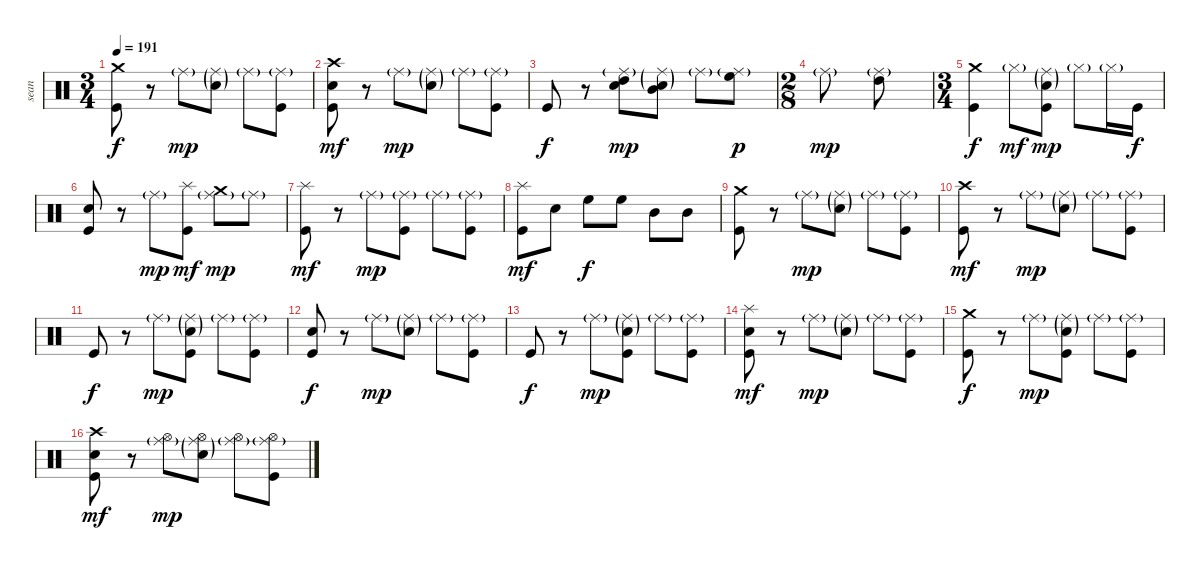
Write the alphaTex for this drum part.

\track ("sean" "sean") {instrument percussion}
\staff {score}
\articulation defaults
\ts (3 4)
\tempo 191
\clef neutral
\ks c
("Crash medium (hit)" "Kick (hit)").8{dy f} r.8 "Ride (middle)"{g}.8{dy mp} ("Electric Snare (hit)"{g} "Ride (middle)"{g}).8 "Ride (middle)"{g}.8 ("Kick (hit)" "Ride (middle)"{g}).8 |
("Crash high (hit)" "Electric Snare (hit)" "Kick (hit)").8{dy mf} r.8 "Ride (middle)"{g}.8{dy mp} ("Electric Snare (hit)"{g} "Ride (middle)"{g}).8 "Ride (middle)"{g}.8 ("Kick (hit)" "Ride (middle)"{g}).8 |
"Kick (hit)".8{dy f} r.8 ("Electric Snare (hit)" "High Tom (hit)" "Ride (middle)"{g}).8{dy mp} ("Electric Snare (hit)"{g} "Ride (middle)"{g} "Mid Tom (hit)").8 "Ride (middle)"{g}.8 ("High Floor Tom (hit)" "Ride (middle)"{g}).8{dy p} |
\ts (2 8)
"Ride (middle)"{g}.8{dy mp} ("High Tom (hit)" "Ride (middle)"{g}).8 |
\ts (3 4)
("Crash medium (hit)" "Kick (hit)").4{dy f} "Hi-Hat (closed)"{g}.8{dy mf} ("Kick (hit)" "Electric Snare (hit)"{g} "Ride (middle)"{g}).8{dy mp} "Hi-Hat (closed)"{g}.8 "Hi-Hat (closed)"{g}.16 "Kick (hit)".16{dy f} |
("Electric Snare (hit)" "Kick (hit)").8 r.8 "Ride (middle)"{g}.8{dy mp} ("Splash (hit)" "Kick (hit)").8{dy mf} ("Crash medium (hit)" "Ride (middle)"{g}).8{dy mp} "Ride (middle)"{g}.8 |
("Splash (hit)" "Kick (hit)").8{dy mf} r.8 "Ride (middle)"{g}.8{dy mp} ("Kick (hit)" "Ride (middle)"{g}).8 "Ride (middle)"{g}.8 ("Kick (hit)" "Ride (middle)"{g}).8 |
("Splash (hit)" "Kick (hit)").8{dy mf} "Electric Snare (hit)".8 "High Floor Tom (hit)".8{dy f} "High Floor Tom (hit)".8 "Mid Tom (hit)".8 "Mid Tom (hit)".8 |
("Crash medium (hit)" "Kick (hit)").8 r.8 "Ride (middle)"{g}.8{dy mp} ("Electric Snare (hit)"{g} "Ride (middle)"{g}).8 "Ride (middle)"{g}.8 ("Kick (hit)" "Ride (middle)"{g}).8 |
("Crash high (hit)" "Kick (hit)").8{dy mf} r.8 "Ride (middle)"{g}.8{dy mp} ("Electric Snare (hit)"{g} "Ride (middle)"{g}).8 "Ride (middle)"{g}.8 ("Kick (hit)" "Ride (middle)"{g}).8 |
"Kick (hit)".8{dy f} r.8 "Ride (middle)"{g}.8{dy mp} ("Electric Snare (hit)"{g} "Ride (middle)"{g} "Kick (hit)").8 "Ride (middle)"{g}.8 ("Kick (hit)" "Ride (middle)"{g}).8 |
("Electric Snare (hit)" "Kick (hit)").8{dy f} r.8 "Ride (middle)"{g}.8{dy mp} ("Electric Snare (hit)"{g} "Ride (middle)"{g}).8 "Ride (middle)"{g}.8 ("Kick (hit)" "Ride (middle)"{g}).8 |
"Kick (hit)".8{dy f} r.8 "Ride (middle)"{g}.8{dy mp} ("Electric Snare (hit)"{g} "Ride (middle)"{g} "Kick (hit)").8 "Ride (middle)"{g}.8 ("Kick (hit)" "Ride (middle)"{g}).8 |
("Splash (hit)" "Electric Snare (hit)" "Kick (hit)").8{dy mf} r.8 "Ride (middle)"{g}.8{dy mp} ("Electric Snare (hit)"{g} "Ride (middle)"{g}).8 "Ride (middle)"{g}.8 ("Kick (hit)" "Ride (middle)"{g}).8 |
("Crash medium (hit)" "Kick (hit)").8{dy f} r.8 "Ride (middle)"{g}.8{dy mp} ("Electric Snare (hit)"{g} "Ride (middle)"{g} "Kick (hit)").8 "Ride (middle)"{g}.8 ("Kick (hit)" "Ride (middle)"{g}).8 |
("Crash high (hit)" "Electric Snare (hit)" "Kick (hit)").8{dy mf} r.8 ("Hi-Hat (open)" "Ride (middle)"{g}).8{dy mp} ("Hi-Hat (open)" "Electric Snare (hit)"{g} "Ride (middle)"{g}).8 ("Hi-Hat (open)" "Ride (middle)"{g}).8 ("Hi-Hat (open)" "Kick (hit)" "Ride (middle)"{g}).8
